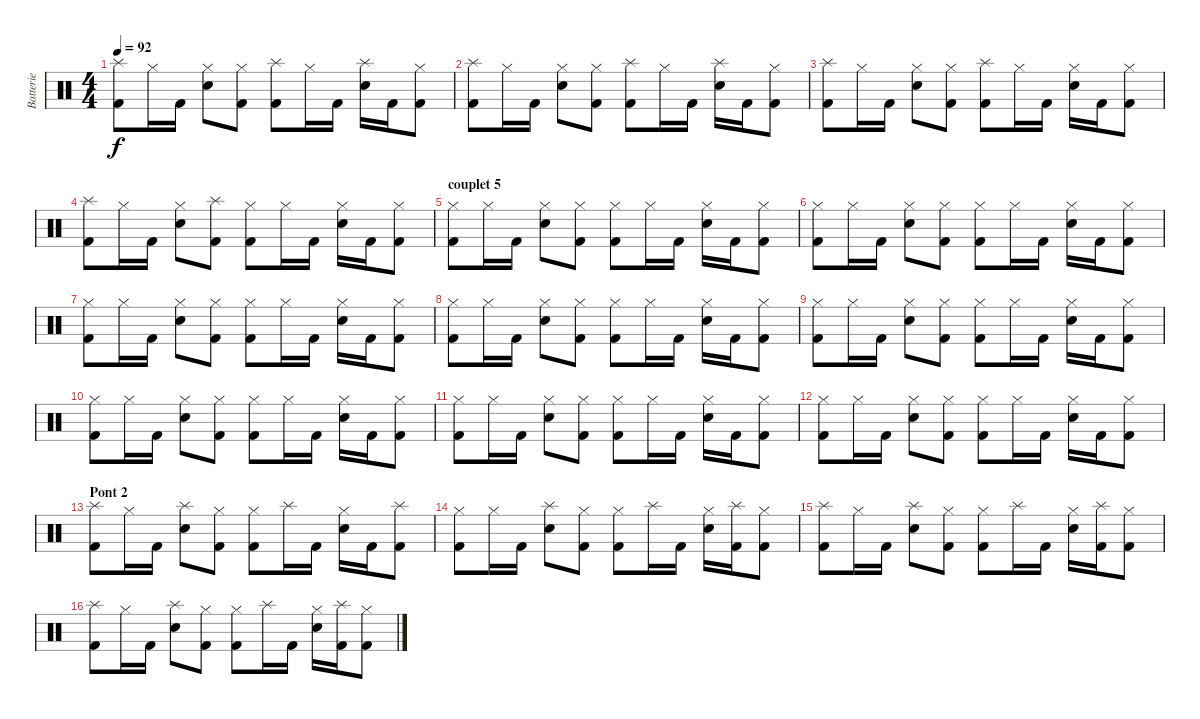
\track ("Batterie" "Batterie") {instrument percussion}
\staff {score}
\articulation defaults
\ts (4 4)
\tempo 92
\clef neutral
\ks c
("Splash (hit)" "Kick (hit) 2").8{dy f} "Hi-Hat (closed)".16 "Kick (hit) 2".16 ("Hi-Hat (closed)" "Snare (hit) 2").8 ("Hi-Hat (closed)" "Kick (hit) 2").8 ("Splash (hit)" "Kick (hit) 2").8 "Hi-Hat (closed)".16 "Kick (hit) 2".16 ("Splash (hit)" "Snare (hit) 2").16 "Kick (hit) 2".16 ("Hi-Hat (closed)" "Kick (hit) 2").8 |
("Splash (hit)" "Kick (hit) 2").8 "Hi-Hat (closed)".16 "Kick (hit) 2".16 ("Hi-Hat (closed)" "Snare (hit) 2").8 ("Hi-Hat (closed)" "Kick (hit) 2").8 ("Splash (hit)" "Kick (hit) 2").8 "Hi-Hat (closed)".16 "Kick (hit) 2".16 ("Splash (hit)" "Snare (hit) 2").16 "Kick (hit) 2".16 ("Hi-Hat (closed)" "Kick (hit) 2").8 |
("Splash (hit)" "Kick (hit) 2").8 "Hi-Hat (closed)".16 "Kick (hit) 2".16 ("Hi-Hat (closed)" "Snare (hit) 2").8 ("Hi-Hat (closed)" "Kick (hit) 2").8 ("Splash (hit)" "Kick (hit) 2").8 "Hi-Hat (closed)".16 "Kick (hit) 2".16 ("Hi-Hat (closed)" "Snare (hit) 2").16 "Kick (hit) 2".16 ("Hi-Hat (closed)" "Kick (hit) 2").8 |
("Splash (hit)" "Kick (hit) 2").8 "Hi-Hat (closed)".16 "Kick (hit) 2".16 ("Hi-Hat (closed)" "Snare (hit) 2").8 ("Splash (hit)" "Kick (hit) 2").8 ("Hi-Hat (closed)" "Kick (hit) 2").8 "Hi-Hat (closed)".16 "Kick (hit) 2".16 ("Hi-Hat (closed)" "Snare (hit) 2").16 "Kick (hit) 2".16 ("Hi-Hat (closed)" "Kick (hit) 2").8 |
\section ("" "couplet 5")
("Hi-Hat (closed)" "Kick (hit) 2").8 "Hi-Hat (closed)".16 "Kick (hit) 2".16 ("Hi-Hat (closed)" "Snare (hit) 2").8 ("Hi-Hat (closed)" "Kick (hit) 2").8 ("Hi-Hat (closed)" "Kick (hit) 2").8 "Hi-Hat (closed)".16 "Kick (hit) 2".16 ("Hi-Hat (closed)" "Snare (hit) 2").16 "Kick (hit) 2".16 ("Hi-Hat (closed)" "Kick (hit) 2").8 |
("Hi-Hat (closed)" "Kick (hit) 2").8 "Hi-Hat (closed)".16 "Kick (hit) 2".16 ("Hi-Hat (closed)" "Snare (hit) 2").8 ("Hi-Hat (closed)" "Kick (hit) 2").8 ("Hi-Hat (closed)" "Kick (hit) 2").8 "Hi-Hat (closed)".16 "Kick (hit) 2".16 ("Hi-Hat (closed)" "Snare (hit) 2").16 "Kick (hit) 2".16 ("Hi-Hat (closed)" "Kick (hit) 2").8 |
("Hi-Hat (closed)" "Kick (hit) 2").8 "Hi-Hat (closed)".16 "Kick (hit) 2".16 ("Hi-Hat (closed)" "Snare (hit) 2").8 ("Hi-Hat (closed)" "Kick (hit) 2").8 ("Hi-Hat (closed)" "Kick (hit) 2").8 "Hi-Hat (closed)".16 "Kick (hit) 2".16 ("Hi-Hat (closed)" "Snare (hit) 2").16 "Kick (hit) 2".16 ("Hi-Hat (closed)" "Kick (hit) 2").8 |
("Hi-Hat (closed)" "Kick (hit) 2").8 "Hi-Hat (closed)".16 "Kick (hit) 2".16 ("Hi-Hat (closed)" "Snare (hit) 2").8 ("Hi-Hat (closed)" "Kick (hit) 2").8 ("Hi-Hat (closed)" "Kick (hit) 2").8 "Hi-Hat (closed)".16 "Kick (hit) 2".16 ("Hi-Hat (closed)" "Snare (hit) 2").16 "Kick (hit) 2".16 ("Hi-Hat (closed)" "Kick (hit) 2").8 |
("Hi-Hat (closed)" "Kick (hit) 2").8 "Hi-Hat (closed)".16 "Kick (hit) 2".16 ("Hi-Hat (closed)" "Snare (hit) 2").8 ("Hi-Hat (closed)" "Kick (hit) 2").8 ("Hi-Hat (closed)" "Kick (hit) 2").8 "Hi-Hat (closed)".16 "Kick (hit) 2".16 ("Hi-Hat (closed)" "Snare (hit) 2").16 "Kick (hit) 2".16 ("Hi-Hat (closed)" "Kick (hit) 2").8 |
("Hi-Hat (closed)" "Kick (hit) 2").8 "Hi-Hat (closed)".16 "Kick (hit) 2".16 ("Hi-Hat (closed)" "Snare (hit) 2").8 ("Hi-Hat (closed)" "Kick (hit) 2").8 ("Hi-Hat (closed)" "Kick (hit) 2").8 "Hi-Hat (closed)".16 "Kick (hit) 2".16 ("Hi-Hat (closed)" "Snare (hit) 2").16 "Kick (hit) 2".16 ("Hi-Hat (closed)" "Kick (hit) 2").8 |
("Hi-Hat (closed)" "Kick (hit) 2").8 "Hi-Hat (closed)".16 "Kick (hit) 2".16 ("Hi-Hat (closed)" "Snare (hit) 2").8 ("Hi-Hat (closed)" "Kick (hit) 2").8 ("Hi-Hat (closed)" "Kick (hit) 2").8 "Hi-Hat (closed)".16 "Kick (hit) 2".16 ("Hi-Hat (closed)" "Snare (hit) 2").16 "Kick (hit) 2".16 ("Hi-Hat (closed)" "Kick (hit) 2").8 |
("Hi-Hat (closed)" "Kick (hit) 2").8 "Hi-Hat (closed)".16 "Kick (hit) 2".16 ("Hi-Hat (closed)" "Snare (hit) 2").8 ("Hi-Hat (closed)" "Kick (hit) 2").8 ("Hi-Hat (closed)" "Kick (hit) 2").8 "Hi-Hat (closed)".16 "Kick (hit) 2".16 ("Hi-Hat (closed)" "Snare (hit) 2").16 "Kick (hit) 2".16 ("Hi-Hat (closed)" "Kick (hit) 2").8 |
\section ("" "Pont 2")
("Splash (hit)" "Kick (hit) 2").8 "Hi-Hat (closed)".16 "Kick (hit) 2".16 ("Splash (hit)" "Snare (hit) 2").8 ("Hi-Hat (closed)" "Kick (hit) 2").8 ("Hi-Hat (closed)" "Kick (hit) 2").8 "Splash (hit)".16 "Kick (hit) 2".16 ("Hi-Hat (closed)" "Snare (hit) 2").16 "Kick (hit) 2".16 ("Splash (hit)" "Kick (hit) 2").8 |
("Hi-Hat (closed)" "Kick (hit) 2").8 "Hi-Hat (closed)".16 "Kick (hit) 2".16 ("Splash (hit)" "Snare (hit) 2").8 ("Hi-Hat (closed)" "Kick (hit) 2").8 ("Hi-Hat (closed)" "Kick (hit) 2").8 "Splash (hit)".16 "Kick (hit) 2".16 ("Hi-Hat (closed)" "Snare (hit) 2").16 ("Splash (hit)" "Kick (hit) 2").16 ("Hi-Hat (closed)" "Kick (hit) 2").8 |
("Splash (hit)" "Kick (hit) 2").8 "Hi-Hat (closed)".16 "Kick (hit) 2".16 ("Splash (hit)" "Snare (hit) 2").8 ("Hi-Hat (closed)" "Kick (hit) 2").8 ("Hi-Hat (closed)" "Kick (hit) 2").8 "Splash (hit)".16 "Kick (hit) 2".16 ("Hi-Hat (closed)" "Snare (hit) 2").16 ("Splash (hit)" "Kick (hit) 2").16 ("Hi-Hat (closed)" "Kick (hit) 2").8 |
("Splash (hit)" "Kick (hit) 2").8 "Hi-Hat (closed)".16 "Kick (hit) 2".16 ("Splash (hit)" "Snare (hit) 2").8 ("Hi-Hat (closed)" "Kick (hit) 2").8 ("Hi-Hat (closed)" "Kick (hit) 2").8 "Splash (hit)".16 "Kick (hit) 2".16 ("Hi-Hat (closed)" "Snare (hit) 2").16 ("Splash (hit)" "Kick (hit) 2").16 ("Hi-Hat (closed)" "Kick (hit) 2").8
